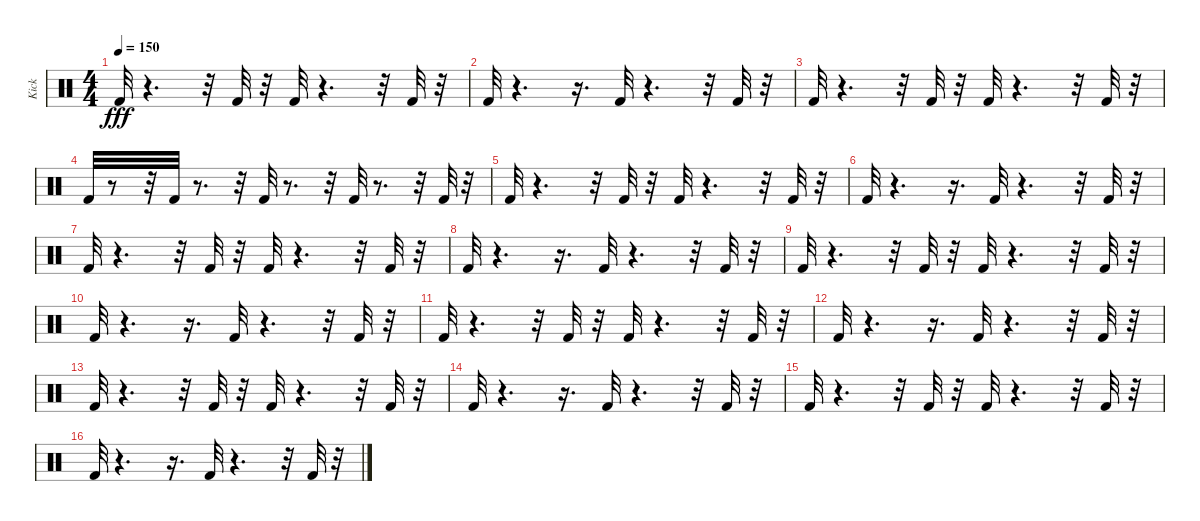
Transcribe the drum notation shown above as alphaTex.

\track ("Kick" "Kick") {instrument percussion}
\staff {score}
\articulation defaults
\ts (4 4)
\tempo 150
\clef neutral
\ks c "Kick (hit) 2".32{dy fff}
r.4{d} r.32 "Kick (hit) 2".32 r.32 "Kick (hit) 2".32 r.4{d} r.32 "Kick (hit) 2".32 r.32 |
"Kick (hit) 2".32 r.4{d} r.16{d} "Kick (hit) 2".32 r.4{d} r.32 "Kick (hit) 2".32 r.32 |
"Kick (hit) 2".32 r.4{d} r.32 "Kick (hit) 2".32 r.32 "Kick (hit) 2".32 r.4{d} r.32 "Kick (hit) 2".32 r.32 |
"Kick (hit) 2".32 r.8 r.32 "Kick (hit) 2".32 r.8{d} r.32 "Kick (hit) 2".32 r.8{d} r.32 "Kick (hit) 2".32 r.8{d} r.32 "Kick (hit) 2".32 r.32 |
"Kick (hit) 2".32 r.4{d} r.32 "Kick (hit) 2".32 r.32 "Kick (hit) 2".32 r.4{d} r.32 "Kick (hit) 2".32 r.32 |
"Kick (hit) 2".32 r.4{d} r.16{d} "Kick (hit) 2".32 r.4{d} r.32 "Kick (hit) 2".32 r.32 |
"Kick (hit) 2".32 r.4{d} r.32 "Kick (hit) 2".32 r.32 "Kick (hit) 2".32 r.4{d} r.32 "Kick (hit) 2".32 r.32 |
"Kick (hit) 2".32 r.4{d} r.16{d} "Kick (hit) 2".32 r.4{d} r.32 "Kick (hit) 2".32 r.32 |
"Kick (hit) 2".32 r.4{d} r.32 "Kick (hit) 2".32 r.32 "Kick (hit) 2".32 r.4{d} r.32 "Kick (hit) 2".32 r.32 |
"Kick (hit) 2".32 r.4{d} r.16{d} "Kick (hit) 2".32 r.4{d} r.32 "Kick (hit) 2".32 r.32 |
"Kick (hit) 2".32 r.4{d} r.32 "Kick (hit) 2".32 r.32 "Kick (hit) 2".32 r.4{d} r.32 "Kick (hit) 2".32 r.32 |
"Kick (hit) 2".32 r.4{d} r.16{d} "Kick (hit) 2".32 r.4{d} r.32 "Kick (hit) 2".32 r.32 |
"Kick (hit) 2".32 r.4{d} r.32 "Kick (hit) 2".32 r.32 "Kick (hit) 2".32 r.4{d} r.32 "Kick (hit) 2".32 r.32 |
"Kick (hit) 2".32 r.4{d} r.16{d} "Kick (hit) 2".32 r.4{d} r.32 "Kick (hit) 2".32 r.32 |
"Kick (hit) 2".32 r.4{d} r.32 "Kick (hit) 2".32 r.32 "Kick (hit) 2".32 r.4{d} r.32 "Kick (hit) 2".32 r.32 |
"Kick (hit) 2".32 r.4{d} r.16{d} "Kick (hit) 2".32 r.4{d} r.32 "Kick (hit) 2".32 r.32
